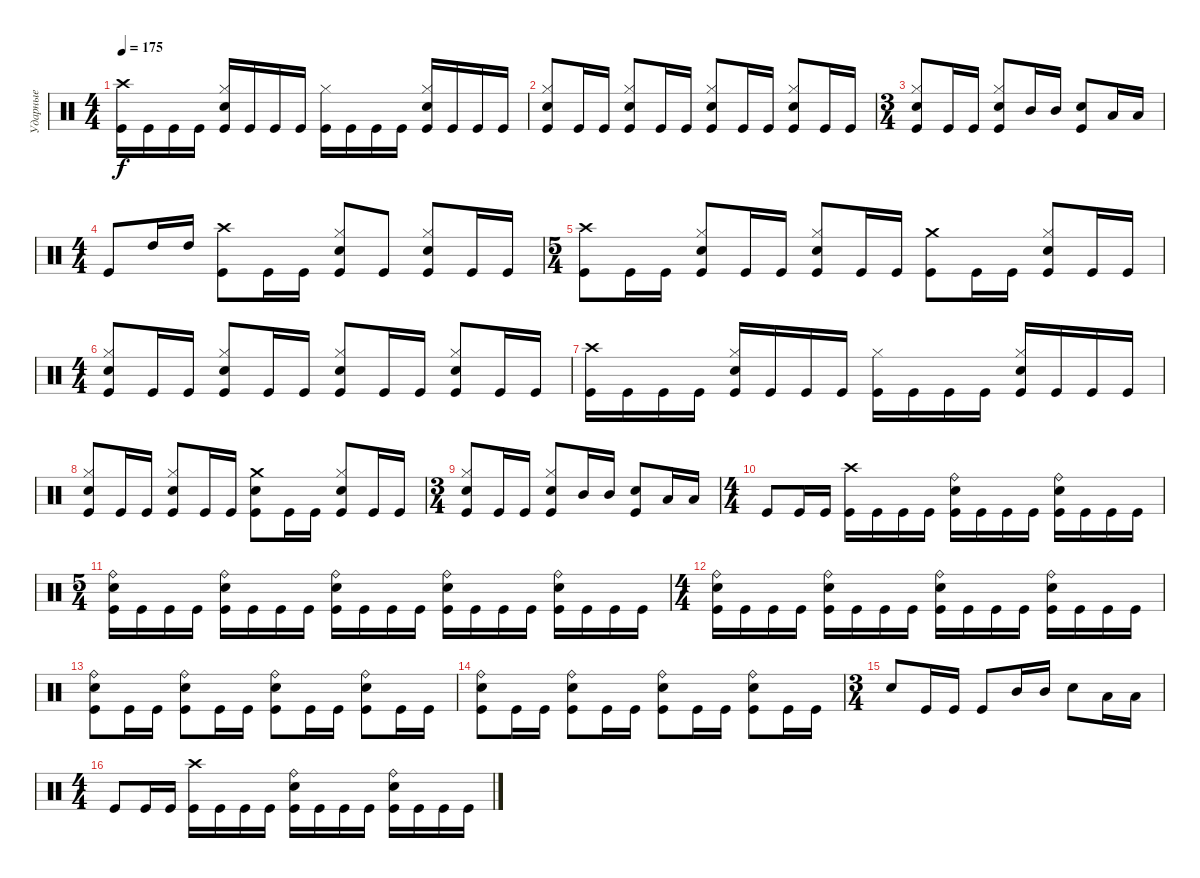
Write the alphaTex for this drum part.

\track ("Ударные" "Ударные") {instrument percussion}
\staff {score}
\articulation defaults
\ts (4 4)
\tempo 175
\clef neutral
\ks c
("Crash high (hit)" "Kick (hit)").16{dy f} "Kick (hit)".16 "Kick (hit)".16 "Kick (hit)".16 ("Hi-Hat (closed)" "Electric Snare (hit)" "Kick (hit)").16 "Kick (hit)".16 "Kick (hit)".16 "Kick (hit)".16 ("Hi-Hat (closed)" "Kick (hit)").16 "Kick (hit)".16 "Kick (hit)".16 "Kick (hit)".16 ("Hi-Hat (closed)" "Electric Snare (hit)" "Kick (hit)").16 "Kick (hit)".16 "Kick (hit)".16 "Kick (hit)".16 |
("Hi-Hat (closed)" "Electric Snare (hit)" "Kick (hit)").8 "Kick (hit)".16 "Kick (hit)".16 ("Hi-Hat (closed)" "Electric Snare (hit)" "Kick (hit)").8 "Kick (hit)".16 "Kick (hit)".16 ("Hi-Hat (closed)" "Electric Snare (hit)" "Kick (hit)").8 "Kick (hit)".16 "Kick (hit)".16 ("Hi-Hat (closed)" "Electric Snare (hit)" "Kick (hit)").8 "Kick (hit)".16 "Kick (hit)".16 |
\ts (3 4)
("Hi-Hat (closed)" "Electric Snare (hit)" "Kick (hit)").8 "Kick (hit)".16 "Kick (hit)".16 ("Hi-Hat (closed)" "Electric Snare (hit)" "Kick (hit)").8 "Mid Tom (hit)".16 "Mid Tom (hit)".16 ("Electric Snare (hit)" "Kick (hit)").8 "Low Tom (hit)".16 "Low Tom (hit)".16 |
\ts (4 4)
"Kick (hit)".8 "High Tom (hit)".16 "High Tom (hit)".16 ("Crash high (hit)" "Kick (hit)").8 "Kick (hit)".16 "Kick (hit)".16 ("Hi-Hat (closed)" "Electric Snare (hit)" "Kick (hit)").8 "Kick (hit)".8 ("Hi-Hat (closed)" "Electric Snare (hit)" "Kick (hit)").8 "Kick (hit)".16 "Kick (hit)".16 |
\ts (5 4)
("Crash high (hit)" "Kick (hit)").8 "Kick (hit)".16 "Kick (hit)".16 ("Hi-Hat (closed)" "Electric Snare (hit)" "Kick (hit)").8 "Kick (hit)".16 "Kick (hit)".16 ("Hi-Hat (closed)" "Electric Snare (hit)" "Kick (hit)").8 "Kick (hit)".16 "Kick (hit)".16 ("Crash medium (hit)" "Kick (hit)").8 "Kick (hit)".16 "Kick (hit)".16 ("Hi-Hat (closed)" "Electric Snare (hit)" "Kick (hit)").8 "Kick (hit)".16 "Kick (hit)".16 |
\ts (4 4)
("Hi-Hat (closed)" "Electric Snare (hit)" "Kick (hit)").8 "Kick (hit)".16 "Kick (hit)".16 ("Hi-Hat (closed)" "Electric Snare (hit)" "Kick (hit)").8 "Kick (hit)".16 "Kick (hit)".16 ("Hi-Hat (closed)" "Electric Snare (hit)" "Kick (hit)").8 "Kick (hit)".16 "Kick (hit)".16 ("Hi-Hat (closed)" "Electric Snare (hit)" "Kick (hit)").8 "Kick (hit)".16 "Kick (hit)".16 |
("Crash high (hit)" "Kick (hit)").16 "Kick (hit)".16 "Kick (hit)".16 "Kick (hit)".16 ("Hi-Hat (closed)" "Electric Snare (hit)" "Kick (hit)").16 "Kick (hit)".16 "Kick (hit)".16 "Kick (hit)".16 ("Hi-Hat (closed)" "Kick (hit)").16 "Kick (hit)".16 "Kick (hit)".16 "Kick (hit)".16 ("Hi-Hat (closed)" "Electric Snare (hit)" "Kick (hit)").16 "Kick (hit)".16 "Kick (hit)".16 "Kick (hit)".16 |
("Hi-Hat (closed)" "Electric Snare (hit)" "Kick (hit)").8 "Kick (hit)".16 "Kick (hit)".16 ("Hi-Hat (closed)" "Electric Snare (hit)" "Kick (hit)").8 "Kick (hit)".16 "Kick (hit)".16 ("Crash medium (hit)" "Electric Snare (hit)" "Kick (hit)").8 "Kick (hit)".16 "Kick (hit)".16 ("Hi-Hat (closed)" "Electric Snare (hit)" "Kick (hit)").8 "Kick (hit)".16 "Kick (hit)".16 |
\ts (3 4)
("Hi-Hat (closed)" "Electric Snare (hit)" "Kick (hit)").8 "Kick (hit)".16 "Kick (hit)".16 ("Hi-Hat (closed)" "Electric Snare (hit)" "Kick (hit)").8 "Mid Tom (hit)".16 "Mid Tom (hit)".16 ("Electric Snare (hit)" "Kick (hit)").8 "Low Tom (hit)".16 "Low Tom (hit)".16 |
\ts (4 4)
"Kick (hit)".8 "Kick (hit)".16 "Kick (hit)".16 ("Crash high (hit)" "Kick (hit)").16 "Kick (hit)".16 "Kick (hit)".16 "Kick (hit)".16 ("Ride (bell)" "Electric Snare (hit)" "Kick (hit)").16 "Kick (hit)".16 "Kick (hit)".16 "Kick (hit)".16 ("Ride (bell)" "Electric Snare (hit)" "Kick (hit)").16 "Kick (hit)".16 "Kick (hit)".16 "Kick (hit)".16 |
\ts (5 4)
("Ride (bell)" "Electric Snare (hit)" "Kick (hit)").16 "Kick (hit)".16 "Kick (hit)".16 "Kick (hit)".16 ("Ride (bell)" "Electric Snare (hit)" "Kick (hit)").16 "Kick (hit)".16 "Kick (hit)".16 "Kick (hit)".16 ("Ride (bell)" "Electric Snare (hit)" "Kick (hit)").16 "Kick (hit)".16 "Kick (hit)".16 "Kick (hit)".16 ("Ride (bell)" "Electric Snare (hit)" "Kick (hit)").16 "Kick (hit)".16 "Kick (hit)".16 "Kick (hit)".16 ("Ride (bell)" "Electric Snare (hit)" "Kick (hit)").16 "Kick (hit)".16 "Kick (hit)".16 "Kick (hit)".16 |
\ts (4 4)
("Ride (bell)" "Electric Snare (hit)" "Kick (hit)").16 "Kick (hit)".16 "Kick (hit)".16 "Kick (hit)".16 ("Ride (bell)" "Electric Snare (hit)" "Kick (hit)").16 "Kick (hit)".16 "Kick (hit)".16 "Kick (hit)".16 ("Ride (bell)" "Electric Snare (hit)" "Kick (hit)").16 "Kick (hit)".16 "Kick (hit)".16 "Kick (hit)".16 ("Ride (bell)" "Electric Snare (hit)" "Kick (hit)").16 "Kick (hit)".16 "Kick (hit)".16 "Kick (hit)".16 |
("Ride (bell)" "Electric Snare (hit)" "Kick (hit)").8 "Kick (hit)".16 "Kick (hit)".16 ("Ride (bell)" "Electric Snare (hit)" "Kick (hit)").8 "Kick (hit)".16 "Kick (hit)".16 ("Ride (bell)" "Electric Snare (hit)" "Kick (hit)").8 "Kick (hit)".16 "Kick (hit)".16 ("Ride (bell)" "Electric Snare (hit)" "Kick (hit)").8 "Kick (hit)".16 "Kick (hit)".16 |
("Ride (bell)" "Electric Snare (hit)" "Kick (hit)").8 "Kick (hit)".16 "Kick (hit)".16 ("Ride (bell)" "Electric Snare (hit)" "Kick (hit)").8 "Kick (hit)".16 "Kick (hit)".16 ("Ride (bell)" "Electric Snare (hit)" "Kick (hit)").8 "Kick (hit)".16 "Kick (hit)".16 ("Ride (bell)" "Electric Snare (hit)" "Kick (hit)").8 "Kick (hit)".16 "Kick (hit)".16 |
\ts (3 4)
"Electric Snare (hit)".8 "Kick (hit)".16 "Kick (hit)".16 "Kick (hit)".8 "Mid Tom (hit)".16 "Mid Tom (hit)".16 "Electric Snare (hit)".8 "Low Tom (hit)".16 "Low Tom (hit)".16 |
\ts (4 4)
"Kick (hit)".8 "Kick (hit)".16 "Kick (hit)".16 ("Crash high (hit)" "Kick (hit)").16 "Kick (hit)".16 "Kick (hit)".16 "Kick (hit)".16 ("Ride (bell)" "Electric Snare (hit)" "Kick (hit)").16 "Kick (hit)".16 "Kick (hit)".16 "Kick (hit)".16 ("Ride (bell)" "Electric Snare (hit)" "Kick (hit)").16 "Kick (hit)".16 "Kick (hit)".16 "Kick (hit)".16
